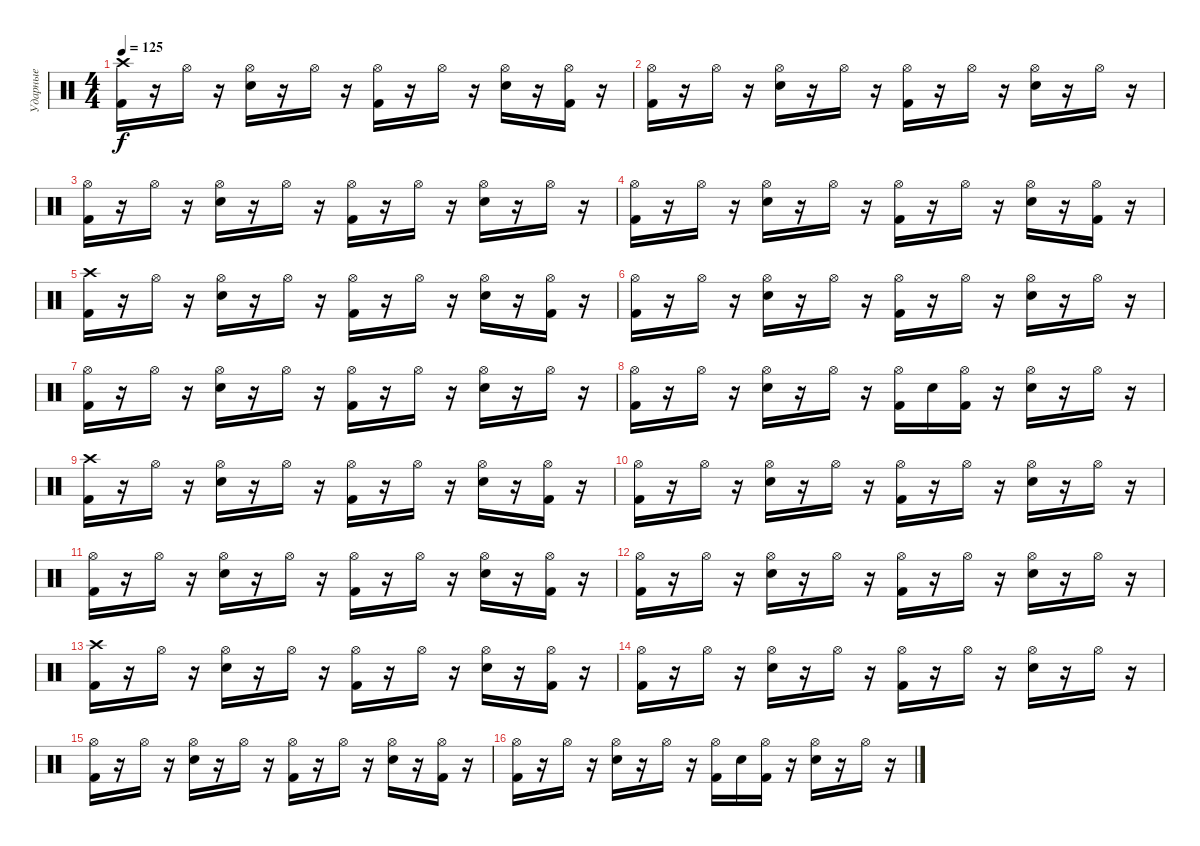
\track ("Ударные" "Ударные") {instrument percussion}
\staff {score}
\articulation defaults
\ts (4 4)
\tempo 125
\clef neutral
\ks c
("Crash high (hit)" "Kick (hit) 2").16{dy f} r.16 "Hi-Hat (open)".16 r.16 ("Hi-Hat (open)" "Electric Snare (hit)").16 r.16 "Hi-Hat (open)".16 r.16 ("Hi-Hat (open)" "Kick (hit) 2").16 r.16 "Hi-Hat (open)".16 r.16 ("Hi-Hat (open)" "Electric Snare (hit)").16 r.16 ("Hi-Hat (open)" "Kick (hit) 2").16 r.16 |
("Hi-Hat (open)" "Kick (hit) 2").16 r.16 "Hi-Hat (open)".16 r.16 ("Hi-Hat (open)" "Electric Snare (hit)").16 r.16 "Hi-Hat (open)".16 r.16 ("Hi-Hat (open)" "Kick (hit) 2").16 r.16 "Hi-Hat (open)".16 r.16 ("Hi-Hat (open)" "Electric Snare (hit)").16 r.16 "Hi-Hat (open)".16 r.16 |
("Hi-Hat (open)" "Kick (hit) 2").16 r.16 "Hi-Hat (open)".16 r.16 ("Hi-Hat (open)" "Electric Snare (hit)").16 r.16 "Hi-Hat (open)".16 r.16 ("Hi-Hat (open)" "Kick (hit) 2").16 r.16 "Hi-Hat (open)".16 r.16 ("Hi-Hat (open)" "Electric Snare (hit)").16 r.16 "Hi-Hat (open)".16 r.16 |
("Hi-Hat (open)" "Kick (hit) 2").16 r.16 "Hi-Hat (open)".16 r.16 ("Hi-Hat (open)" "Electric Snare (hit)").16 r.16 "Hi-Hat (open)".16 r.16 ("Hi-Hat (open)" "Kick (hit) 2").16 r.16 "Hi-Hat (open)".16 r.16 ("Hi-Hat (open)" "Electric Snare (hit)").16 r.16 ("Hi-Hat (open)" "Kick (hit) 2").16 r.16 |
("Crash high (hit)" "Kick (hit) 2").16 r.16 "Hi-Hat (open)".16 r.16 ("Hi-Hat (open)" "Electric Snare (hit)").16 r.16 "Hi-Hat (open)".16 r.16 ("Hi-Hat (open)" "Kick (hit) 2").16 r.16 "Hi-Hat (open)".16 r.16 ("Hi-Hat (open)" "Electric Snare (hit)").16 r.16 ("Hi-Hat (open)" "Kick (hit) 2").16 r.16 |
("Hi-Hat (open)" "Kick (hit) 2").16 r.16 "Hi-Hat (open)".16 r.16 ("Hi-Hat (open)" "Electric Snare (hit)").16 r.16 "Hi-Hat (open)".16 r.16 ("Hi-Hat (open)" "Kick (hit) 2").16 r.16 "Hi-Hat (open)".16 r.16 ("Hi-Hat (open)" "Electric Snare (hit)").16 r.16 "Hi-Hat (open)".16 r.16 |
("Hi-Hat (open)" "Kick (hit) 2").16 r.16 "Hi-Hat (open)".16 r.16 ("Hi-Hat (open)" "Electric Snare (hit)").16 r.16 "Hi-Hat (open)".16 r.16 ("Hi-Hat (open)" "Kick (hit) 2").16 r.16 "Hi-Hat (open)".16 r.16 ("Hi-Hat (open)" "Electric Snare (hit)").16 r.16 "Hi-Hat (open)".16 r.16 |
("Hi-Hat (open)" "Kick (hit) 2").16 r.16 "Hi-Hat (open)".16 r.16 ("Hi-Hat (open)" "Electric Snare (hit)").16 r.16 "Hi-Hat (open)".16 r.16 ("Hi-Hat (open)" "Kick (hit) 2").16 "Electric Snare (hit)".16 ("Hi-Hat (open)" "Kick (hit) 2").16 r.16 ("Hi-Hat (open)" "Electric Snare (hit)").16 r.16 "Hi-Hat (open)".16 r.16 |
("Crash high (hit)" "Kick (hit) 2").16 r.16 "Hi-Hat (open)".16 r.16 ("Hi-Hat (open)" "Electric Snare (hit)").16 r.16 "Hi-Hat (open)".16 r.16 ("Hi-Hat (open)" "Kick (hit) 2").16 r.16 "Hi-Hat (open)".16 r.16 ("Hi-Hat (open)" "Electric Snare (hit)").16 r.16 ("Hi-Hat (open)" "Kick (hit) 2").16 r.16 |
("Hi-Hat (open)" "Kick (hit) 2").16 r.16 "Hi-Hat (open)".16 r.16 ("Hi-Hat (open)" "Electric Snare (hit)").16 r.16 "Hi-Hat (open)".16 r.16 ("Hi-Hat (open)" "Kick (hit) 2").16 r.16 "Hi-Hat (open)".16 r.16 ("Hi-Hat (open)" "Electric Snare (hit)").16 r.16 "Hi-Hat (open)".16 r.16 |
("Hi-Hat (open)" "Kick (hit) 2").16 r.16 "Hi-Hat (open)".16 r.16 ("Hi-Hat (open)" "Electric Snare (hit)").16 r.16 "Hi-Hat (open)".16 r.16 ("Hi-Hat (open)" "Kick (hit) 2").16 r.16 "Hi-Hat (open)".16 r.16 ("Hi-Hat (open)" "Electric Snare (hit)").16 r.16 ("Hi-Hat (open)" "Kick (hit) 2").16 r.16 |
("Hi-Hat (open)" "Kick (hit) 2").16 r.16 "Hi-Hat (open)".16 r.16 ("Hi-Hat (open)" "Electric Snare (hit)").16 r.16 "Hi-Hat (open)".16 r.16 ("Hi-Hat (open)" "Kick (hit) 2").16 r.16 "Hi-Hat (open)".16 r.16 ("Hi-Hat (open)" "Electric Snare (hit)").16 r.16 "Hi-Hat (open)".16 r.16 |
("Crash high (hit)" "Kick (hit) 2").16{volume 0} r.16 "Hi-Hat (open)".16 r.16 ("Hi-Hat (open)" "Electric Snare (hit)").16 r.16 "Hi-Hat (open)".16 r.16 ("Hi-Hat (open)" "Kick (hit) 2").16 r.16 "Hi-Hat (open)".16 r.16 ("Hi-Hat (open)" "Electric Snare (hit)").16 r.16 ("Hi-Hat (open)" "Kick (hit) 2").16 r.16 |
("Hi-Hat (open)" "Kick (hit) 2").16 r.16 "Hi-Hat (open)".16 r.16 ("Hi-Hat (open)" "Electric Snare (hit)").16 r.16 "Hi-Hat (open)".16 r.16 ("Hi-Hat (open)" "Kick (hit) 2").16 r.16 "Hi-Hat (open)".16 r.16 ("Hi-Hat (open)" "Electric Snare (hit)").16 r.16 "Hi-Hat (open)".16 r.16 |
("Hi-Hat (open)" "Kick (hit) 2").16 r.16 "Hi-Hat (open)".16 r.16 ("Hi-Hat (open)" "Electric Snare (hit)").16 r.16 "Hi-Hat (open)".16 r.16 ("Hi-Hat (open)" "Kick (hit) 2").16 r.16 "Hi-Hat (open)".16 r.16 ("Hi-Hat (open)" "Electric Snare (hit)").16 r.16 ("Hi-Hat (open)" "Kick (hit) 2").16 r.16 |
("Hi-Hat (open)" "Kick (hit) 2").16 r.16 "Hi-Hat (open)".16 r.16 ("Hi-Hat (open)" "Electric Snare (hit)").16 r.16 "Hi-Hat (open)".16 r.16 ("Hi-Hat (open)" "Kick (hit) 2").16 "Electric Snare (hit)".16 ("Hi-Hat (open)" "Kick (hit) 2").16 r.16 ("Hi-Hat (open)" "Electric Snare (hit)").16 r.16 "Hi-Hat (open)".16 r.16
